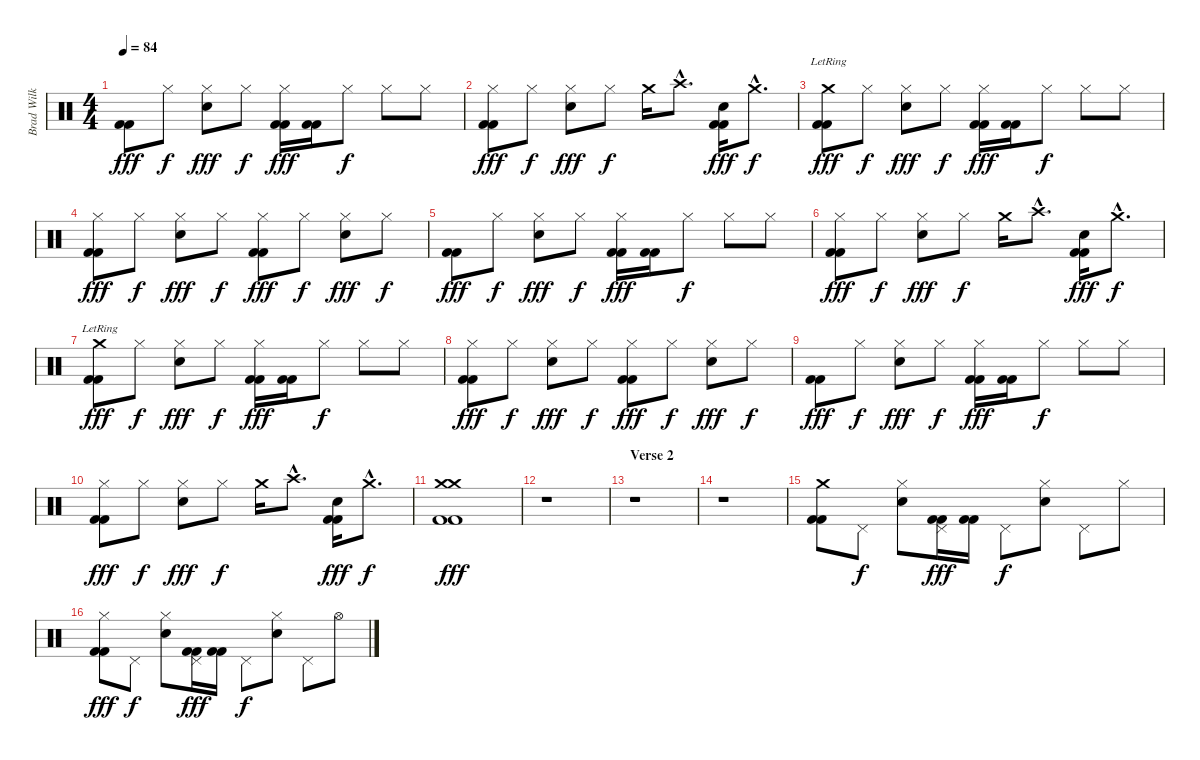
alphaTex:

\track ("Brad Wilk" "Brad Wilk") {instrument percussion}
\staff {score}
\articulation defaults
\ts (4 4)
\tempo 84
\clef neutral
\ks c
("Kick (hit) 2" "Kick (hit) 2").8{dy fff} "Hi-Hat (closed)".8{dy f} ("Hi-Hat (closed)" "Snare (hit) 2").8{dy fff} "Hi-Hat (closed)".8{dy f} ("Hi-Hat (closed)" "Kick (hit) 2" "Kick (hit) 2").16{dy fff} ("Kick (hit) 2" "Kick (hit) 2").16 "Hi-Hat (closed)".8{dy f} "Hi-Hat (closed)".8 "Hi-Hat (closed)".8 |
("Hi-Hat (closed)" "Kick (hit) 2" "Kick (hit) 2").8{dy fff} "Hi-Hat (closed)".8{dy f} ("Hi-Hat (closed)" "Snare (hit) 2").8{dy fff} "Hi-Hat (closed)".8{dy f} "Crash medium (hit)".16 "Crash high (hit)"{hac}.8{d} ("Electric Snare (hit)" "Kick (hit) 2" "Kick (hit) 2").16{dy fff} "Crash medium (hit)"{hac}.8{d dy f} |
("Crash medium (hit)"{lr} "Kick (hit) 2" "Kick (hit) 2").8{dy fff} "Hi-Hat (closed)".8{dy f} ("Hi-Hat (closed)" "Snare (hit) 2").8{dy fff} "Hi-Hat (closed)".8{dy f} ("Hi-Hat (closed)" "Kick (hit) 2" "Kick (hit) 2").16{dy fff} ("Kick (hit) 2" "Kick (hit) 2").16 "Hi-Hat (closed)".8{dy f} "Hi-Hat (closed)".8 "Hi-Hat (closed)".8 |
("Hi-Hat (closed)" "Kick (hit) 2" "Kick (hit) 2").8{dy fff} "Hi-Hat (closed)".8{dy f} ("Hi-Hat (closed)" "Snare (hit) 2").8{dy fff} "Hi-Hat (closed)".8{dy f} ("Hi-Hat (closed)" "Kick (hit) 2" "Kick (hit) 2").8{dy fff} "Hi-Hat (closed)".8{dy f} ("Hi-Hat (closed)" "Snare (hit) 2").8{dy fff} "Hi-Hat (closed)".8{dy f} |
("Kick (hit) 2" "Kick (hit) 2").8{dy fff} "Hi-Hat (closed)".8{dy f} ("Hi-Hat (closed)" "Snare (hit) 2").8{dy fff} "Hi-Hat (closed)".8{dy f} ("Hi-Hat (closed)" "Kick (hit) 2" "Kick (hit) 2").16{dy fff} ("Kick (hit) 2" "Kick (hit) 2").16 "Hi-Hat (closed)".8{dy f} "Hi-Hat (closed)".8 "Hi-Hat (closed)".8 |
("Hi-Hat (closed)" "Kick (hit) 2" "Kick (hit) 2").8{dy fff} "Hi-Hat (closed)".8{dy f} ("Hi-Hat (closed)" "Snare (hit) 2").8{dy fff} "Hi-Hat (closed)".8{dy f} "Crash medium (hit)".16 "Crash high (hit)"{hac}.8{d} ("Electric Snare (hit)" "Kick (hit) 2" "Kick (hit) 2").16{dy fff} "Crash medium (hit)"{hac}.8{d dy f} |
("Crash medium (hit)"{lr} "Kick (hit) 2" "Kick (hit) 2").8{dy fff} "Hi-Hat (closed)".8{dy f} ("Hi-Hat (closed)" "Snare (hit) 2").8{dy fff} "Hi-Hat (closed)".8{dy f} ("Hi-Hat (closed)" "Kick (hit) 2" "Kick (hit) 2").16{dy fff} ("Kick (hit) 2" "Kick (hit) 2").16 "Hi-Hat (closed)".8{dy f} "Hi-Hat (closed)".8 "Hi-Hat (closed)".8 |
("Hi-Hat (closed)" "Kick (hit) 2" "Kick (hit) 2").8{dy fff} "Hi-Hat (closed)".8{dy f} ("Hi-Hat (closed)" "Snare (hit) 2").8{dy fff} "Hi-Hat (closed)".8{dy f} ("Hi-Hat (closed)" "Kick (hit) 2" "Kick (hit) 2").8{dy fff} "Hi-Hat (closed)".8{dy f} ("Hi-Hat (closed)" "Snare (hit) 2").8{dy fff} "Hi-Hat (closed)".8{dy f} |
("Kick (hit) 2" "Kick (hit) 2").8{dy fff} "Hi-Hat (closed)".8{dy f} ("Hi-Hat (closed)" "Snare (hit) 2").8{dy fff} "Hi-Hat (closed)".8{dy f} ("Hi-Hat (closed)" "Kick (hit) 2" "Kick (hit) 2").16{dy fff} ("Kick (hit) 2" "Kick (hit) 2").16 "Hi-Hat (closed)".8{dy f} "Hi-Hat (closed)".8 "Hi-Hat (closed)".8 |
("Hi-Hat (closed)" "Kick (hit) 2" "Kick (hit) 2").8{dy fff} "Hi-Hat (closed)".8{dy f} ("Hi-Hat (closed)" "Snare (hit) 2").8{dy fff} "Hi-Hat (closed)".8{dy f} "Crash medium (hit)".16 "Crash high (hit)"{hac}.8{d} ("Electric Snare (hit)" "Kick (hit) 2" "Kick (hit) 2").16{dy fff} "Crash medium (hit)"{hac}.8{d dy f} |
("Crash medium (hit)" "Crash medium (hit)" "Kick (hit) 2" "Kick (hit) 2").1{dy fff} |
r.1 |
\section ("" "Verse 2")
r.1 |
r.1 |
("Crash medium (hit)" "Kick (hit) 2" "Kick (hit) 2").8 "Pedal Hi-Hat (hit)".8{dy f} ("Hi-Hat (closed)" "Snare (hit) 2").8 ("Pedal Hi-Hat (hit)" "Kick (hit) 2" "Kick (hit) 2").16{dy fff} ("Kick (hit) 2" "Kick (hit) 2").16 "Pedal Hi-Hat (hit)".8{dy f} ("Hi-Hat (closed)" "Snare (hit) 2").8 "Pedal Hi-Hat (hit)".8 "Hi-Hat (closed)".8 |
("Hi-Hat (closed)" "Kick (hit) 2" "Kick (hit) 2").8{dy fff} "Pedal Hi-Hat (hit)".8{dy f} ("Hi-Hat (closed)" "Snare (hit) 2").8 ("Pedal Hi-Hat (hit)" "Kick (hit) 2" "Kick (hit) 2").16{dy fff} ("Kick (hit) 2" "Kick (hit) 2").16 "Pedal Hi-Hat (hit)".8{dy f} ("Hi-Hat (closed)" "Snare (hit) 2").8 "Pedal Hi-Hat (hit)".8 "Hi-Hat (open)".8
